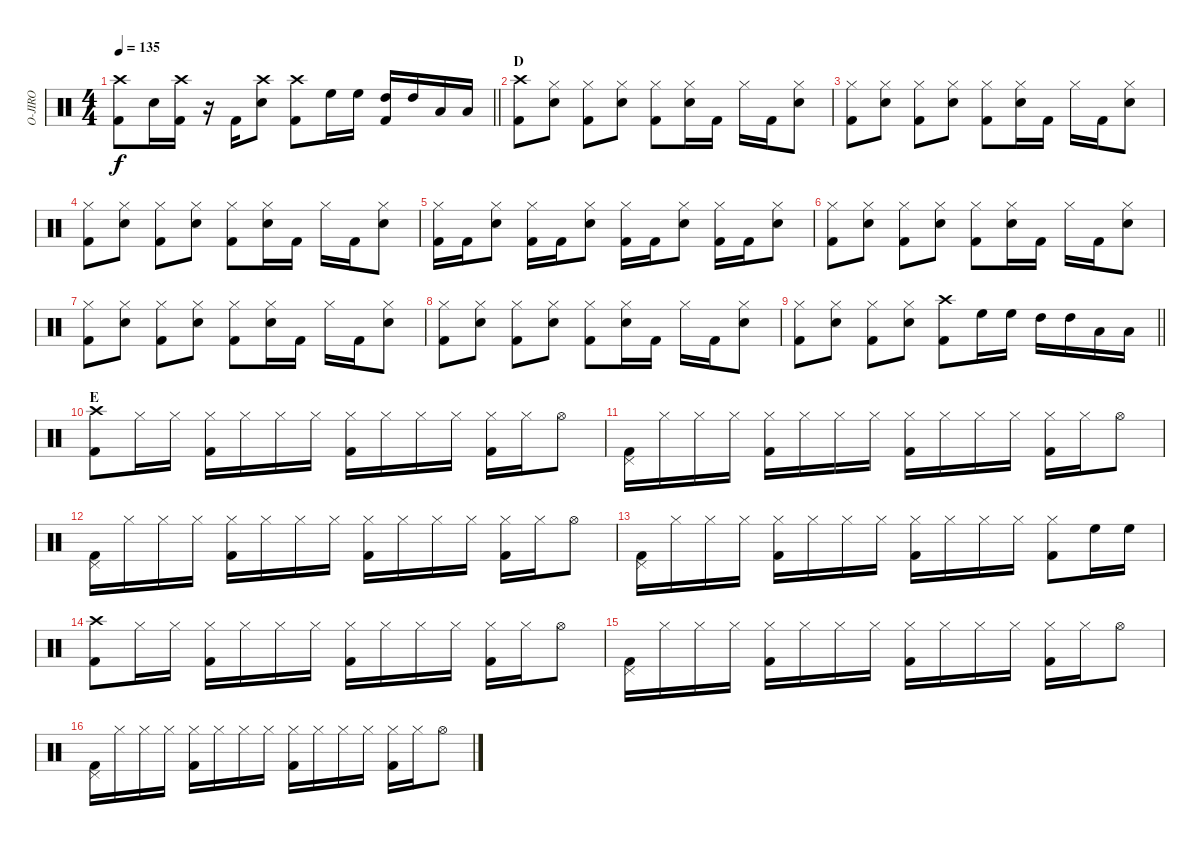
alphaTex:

\track ("O-JIRO" "O-JIRO") {instrument percussion}
\staff {score}
\articulation defaults
\ts (4 4)
\tempo 135
\clef neutral
\barLineRight lightlight
\ks c
("Crash high (hit)" "Kick (hit) 2").8{dy f} "Snare (hit) 2".16 ("Crash high (hit)" "Kick (hit) 2").16 r.16 "Kick (hit) 2".16 ("Crash high (hit)" "Snare (hit) 2").8 ("Crash high (hit)" "Kick (hit) 2").8 "High Floor Tom (hit)".16 "High Floor Tom (hit)".16 ("High Tom (hit)" "Kick (hit) 2").16 "High Tom (hit)".16 "Low Tom (hit)".16 "Low Tom (hit)".16 |
\section ("" "D ")
("Crash high (hit)" "Kick (hit) 2").8 ("Hi-Hat (closed)" "Snare (hit) 2").8 ("Hi-Hat (closed)" "Kick (hit) 2").8 ("Hi-Hat (closed)" "Snare (hit) 2").8 ("Hi-Hat (closed)" "Kick (hit) 2").8 ("Hi-Hat (closed)" "Snare (hit) 2").16 "Kick (hit) 2".16 "Hi-Hat (closed)".16 "Kick (hit) 2".16 ("Hi-Hat (closed)" "Snare (hit) 2").8 |
("Hi-Hat (closed)" "Kick (hit) 2").8 ("Hi-Hat (closed)" "Snare (hit) 2").8 ("Hi-Hat (closed)" "Kick (hit) 2").8 ("Hi-Hat (closed)" "Snare (hit) 2").8 ("Hi-Hat (closed)" "Kick (hit) 2").8 ("Hi-Hat (closed)" "Snare (hit) 2").16 "Kick (hit) 2".16 "Hi-Hat (closed)".16 "Kick (hit) 2".16 ("Hi-Hat (closed)" "Snare (hit) 2").8 |
("Hi-Hat (closed)" "Kick (hit) 2").8 ("Hi-Hat (closed)" "Snare (hit) 2").8 ("Hi-Hat (closed)" "Kick (hit) 2").8 ("Hi-Hat (closed)" "Snare (hit) 2").8 ("Hi-Hat (closed)" "Kick (hit) 2").8 ("Hi-Hat (closed)" "Snare (hit) 2").16 "Kick (hit) 2".16 "Hi-Hat (closed)".16 "Kick (hit) 2".16 ("Hi-Hat (closed)" "Snare (hit) 2").8 |
("Hi-Hat (closed)" "Kick (hit) 2").16 "Kick (hit) 2".16 ("Hi-Hat (closed)" "Snare (hit) 2").8 ("Hi-Hat (closed)" "Kick (hit) 2").16 "Kick (hit) 2".16 ("Hi-Hat (closed)" "Snare (hit) 2").8 ("Hi-Hat (closed)" "Kick (hit) 2").16 "Kick (hit) 2".16 ("Hi-Hat (closed)" "Snare (hit) 2").8 ("Hi-Hat (closed)" "Kick (hit) 2").16 "Kick (hit) 2".16 ("Hi-Hat (closed)" "Snare (hit) 2").8 |
("Hi-Hat (closed)" "Kick (hit) 2").8 ("Hi-Hat (closed)" "Snare (hit) 2").8 ("Hi-Hat (closed)" "Kick (hit) 2").8 ("Hi-Hat (closed)" "Snare (hit) 2").8 ("Hi-Hat (closed)" "Kick (hit) 2").8 ("Hi-Hat (closed)" "Snare (hit) 2").16 "Kick (hit) 2".16 "Hi-Hat (closed)".16 "Kick (hit) 2".16 ("Hi-Hat (closed)" "Snare (hit) 2").8 |
("Hi-Hat (closed)" "Kick (hit) 2").8 ("Hi-Hat (closed)" "Snare (hit) 2").8 ("Hi-Hat (closed)" "Kick (hit) 2").8 ("Hi-Hat (closed)" "Snare (hit) 2").8 ("Hi-Hat (closed)" "Kick (hit) 2").8 ("Hi-Hat (closed)" "Snare (hit) 2").16 "Kick (hit) 2".16 "Hi-Hat (closed)".16 "Kick (hit) 2".16 ("Hi-Hat (closed)" "Snare (hit) 2").8 |
("Hi-Hat (closed)" "Kick (hit) 2").8 ("Hi-Hat (closed)" "Snare (hit) 2").8 ("Hi-Hat (closed)" "Kick (hit) 2").8 ("Hi-Hat (closed)" "Snare (hit) 2").8 ("Hi-Hat (closed)" "Kick (hit) 2").8 ("Hi-Hat (closed)" "Snare (hit) 2").16 "Kick (hit) 2".16 "Hi-Hat (closed)".16 "Kick (hit) 2".16 ("Hi-Hat (closed)" "Snare (hit) 2").8 |
\barLineRight lightlight
("Hi-Hat (closed)" "Kick (hit) 2").8 ("Hi-Hat (closed)" "Snare (hit) 2").8 ("Hi-Hat (closed)" "Kick (hit) 2").8 ("Hi-Hat (closed)" "Snare (hit) 2").8 ("Crash high (hit)" "Kick (hit) 2").8 "High Floor Tom (hit)".16 "High Floor Tom (hit)".16 "High Tom (hit)".16 "High Tom (hit)".16 "Low Tom (hit)".16 "Low Tom (hit)".16 |
\section ("" "E")
("Crash high (hit)" "Kick (hit) 2").8 "Hi-Hat (closed)".16 "Hi-Hat (closed)".16 ("Hi-Hat (closed)" "Kick (hit) 2").16 "Hi-Hat (closed)".16 "Hi-Hat (closed)".16 "Hi-Hat (closed)".16 ("Hi-Hat (closed)" "Kick (hit) 2").16 "Hi-Hat (closed)".16 "Hi-Hat (closed)".16 "Hi-Hat (closed)".16 ("Hi-Hat (closed)" "Kick (hit) 2").16 "Hi-Hat (closed)".16 "Hi-Hat (open)".8 |
("Pedal Hi-Hat (hit)" "Kick (hit) 2").16 "Hi-Hat (closed)".16 "Hi-Hat (closed)".16 "Hi-Hat (closed)".16 ("Hi-Hat (closed)" "Kick (hit) 2").16 "Hi-Hat (closed)".16 "Hi-Hat (closed)".16 "Hi-Hat (closed)".16 ("Hi-Hat (closed)" "Kick (hit) 2").16 "Hi-Hat (closed)".16 "Hi-Hat (closed)".16 "Hi-Hat (closed)".16 ("Hi-Hat (closed)" "Kick (hit) 2").16 "Hi-Hat (closed)".16 "Hi-Hat (open)".8 |
("Pedal Hi-Hat (hit)" "Kick (hit) 2").16 "Hi-Hat (closed)".16 "Hi-Hat (closed)".16 "Hi-Hat (closed)".16 ("Hi-Hat (closed)" "Kick (hit) 2").16 "Hi-Hat (closed)".16 "Hi-Hat (closed)".16 "Hi-Hat (closed)".16 ("Hi-Hat (closed)" "Kick (hit) 2").16 "Hi-Hat (closed)".16 "Hi-Hat (closed)".16 "Hi-Hat (closed)".16 ("Hi-Hat (closed)" "Kick (hit) 2").16 "Hi-Hat (closed)".16 "Hi-Hat (open)".8 |
("Pedal Hi-Hat (hit)" "Kick (hit) 2").16 "Hi-Hat (closed)".16 "Hi-Hat (closed)".16 "Hi-Hat (closed)".16 ("Hi-Hat (closed)" "Kick (hit) 2").16 "Hi-Hat (closed)".16 "Hi-Hat (closed)".16 "Hi-Hat (closed)".16 ("Hi-Hat (closed)" "Kick (hit) 2").16 "Hi-Hat (closed)".16 "Hi-Hat (closed)".16 "Hi-Hat (closed)".16 ("Hi-Hat (closed)" "Kick (hit) 2").8 "High Floor Tom (hit)".16 "High Floor Tom (hit)".16 |
("Crash high (hit)" "Kick (hit) 2").8 "Hi-Hat (closed)".16 "Hi-Hat (closed)".16 ("Hi-Hat (closed)" "Kick (hit) 2").16 "Hi-Hat (closed)".16 "Hi-Hat (closed)".16 "Hi-Hat (closed)".16 ("Hi-Hat (closed)" "Kick (hit) 2").16 "Hi-Hat (closed)".16 "Hi-Hat (closed)".16 "Hi-Hat (closed)".16 ("Hi-Hat (closed)" "Kick (hit) 2").16 "Hi-Hat (closed)".16 "Hi-Hat (open)".8 |
("Pedal Hi-Hat (hit)" "Kick (hit) 2").16 "Hi-Hat (closed)".16 "Hi-Hat (closed)".16 "Hi-Hat (closed)".16 ("Hi-Hat (closed)" "Kick (hit) 2").16 "Hi-Hat (closed)".16 "Hi-Hat (closed)".16 "Hi-Hat (closed)".16 ("Hi-Hat (closed)" "Kick (hit) 2").16 "Hi-Hat (closed)".16 "Hi-Hat (closed)".16 "Hi-Hat (closed)".16 ("Hi-Hat (closed)" "Kick (hit) 2").16 "Hi-Hat (closed)".16 "Hi-Hat (open)".8 |
("Pedal Hi-Hat (hit)" "Kick (hit) 2").16 "Hi-Hat (closed)".16 "Hi-Hat (closed)".16 "Hi-Hat (closed)".16 ("Hi-Hat (closed)" "Kick (hit) 2").16 "Hi-Hat (closed)".16 "Hi-Hat (closed)".16 "Hi-Hat (closed)".16 ("Hi-Hat (closed)" "Kick (hit) 2").16 "Hi-Hat (closed)".16 "Hi-Hat (closed)".16 "Hi-Hat (closed)".16 ("Hi-Hat (closed)" "Kick (hit) 2").16 "Hi-Hat (closed)".16 "Hi-Hat (open)".8
